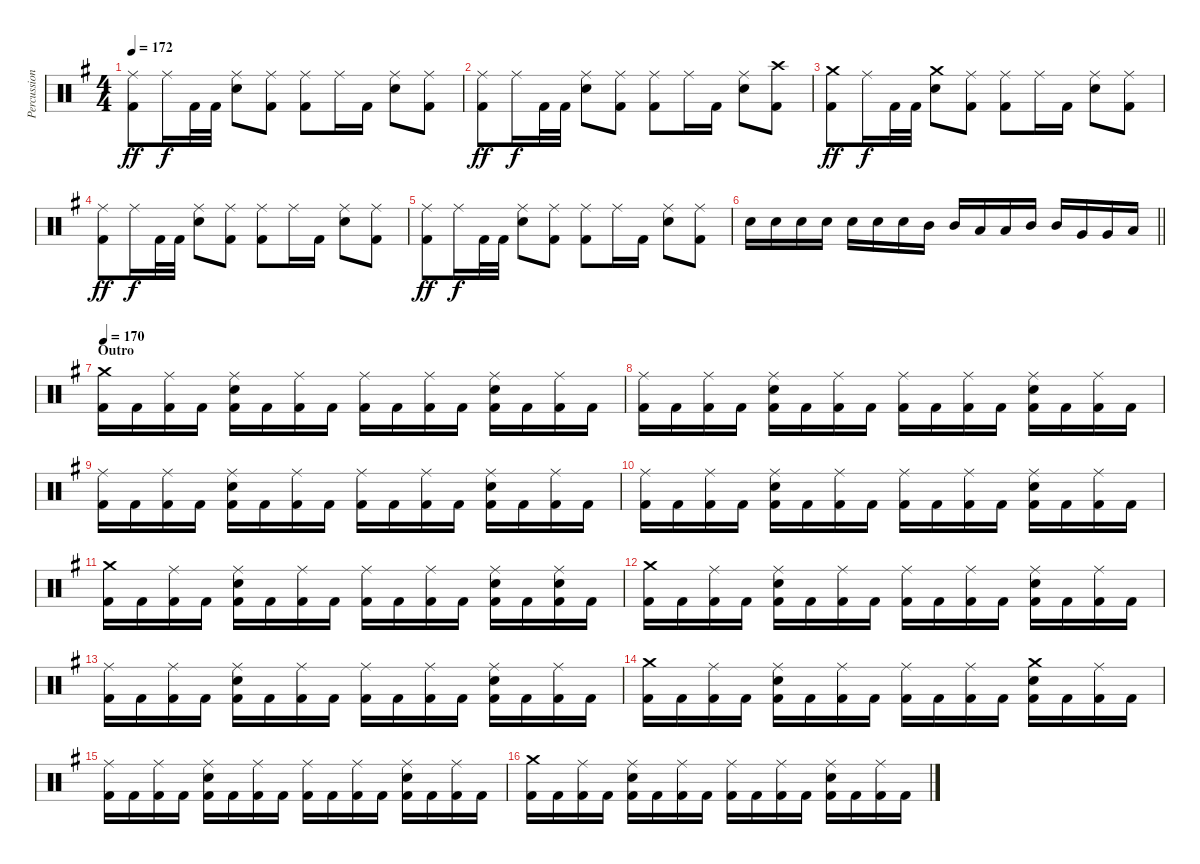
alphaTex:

\track ("Percussion" "Percussion") {instrument percussion}
\staff {score}
\articulation defaults
\ts (4 4)
\tempo 172
\clef neutral
\ks g
("Ride (middle)" "Kick (hit) 2").8{dy ff} "Ride (middle)".16{dy f} "Kick (hit) 2".32 "Kick (hit) 2".32 ("Ride (middle)" "Snare (hit) 2").8 ("Ride (middle)" "Kick (hit) 2").8 ("Ride (middle)" "Kick (hit) 2").8 "Ride (middle)".16 "Kick (hit) 2".16 ("Ride (middle)" "Snare (hit) 2").8 ("Ride (middle)" "Kick (hit) 2").8 |
("Ride (middle)" "Kick (hit) 2").8{dy ff} "Ride (middle)".16{dy f} "Kick (hit) 2".32 "Kick (hit) 2".32 ("Ride (middle)" "Snare (hit) 2").8 ("Ride (middle)" "Kick (hit) 2").8 ("Ride (middle)" "Kick (hit) 2").8 "Ride (middle)".16 "Kick (hit) 2".16 ("Ride (middle)" "Snare (hit) 2").8 ("Crash high (hit)" "Kick (hit) 2").8 |
("Crash medium (hit)" "Kick (hit) 2").8{dy ff} "Ride (middle)".16{dy f} "Kick (hit) 2".32 "Kick (hit) 2".32 ("Crash medium (hit)" "Snare (hit) 2").8 ("Ride (middle)" "Kick (hit) 2").8 ("Ride (middle)" "Kick (hit) 2").8 "Ride (middle)".16 "Kick (hit) 2".16 ("Ride (middle)" "Snare (hit) 2").8 ("Ride (middle)" "Kick (hit) 2").8 |
("Ride (middle)" "Kick (hit) 2").8{dy ff} "Ride (middle)".16{dy f} "Kick (hit) 2".32 "Kick (hit) 2".32 ("Ride (middle)" "Snare (hit) 2").8 ("Ride (middle)" "Kick (hit) 2").8 ("Ride (middle)" "Kick (hit) 2").8 "Ride (middle)".16 "Kick (hit) 2".16 ("Ride (middle)" "Snare (hit) 2").8 ("Ride (middle)" "Kick (hit) 2").8 |
("Ride (middle)" "Kick (hit) 2").8{dy ff} "Ride (middle)".16{dy f} "Kick (hit) 2".32 "Kick (hit) 2".32 ("Ride (middle)" "Snare (hit) 2").8 ("Ride (middle)" "Kick (hit) 2").8 ("Ride (middle)" "Kick (hit) 2").8 "Ride (middle)".16 "Kick (hit) 2".16 ("Ride (middle)" "Snare (hit) 2").8 ("Ride (middle)" "Kick (hit) 2").8 |
\barLineRight lightlight "Snare (hit) 2".16 "Snare (hit) 2".16 "Snare (hit) 2".16 "Snare (hit) 2".16 "Snare (hit) 2".16 "Snare (hit) 2".16 "Snare (hit) 2".16 "Mid Tom (hit)".16 "Mid Tom (hit)".16 "Low Tom (hit)".16 "Low Tom (hit)".16 "Mid Tom (hit)".16 "Mid Tom (hit)".16 "Very Low Tom (hit)".16 "Very Low Tom (hit)".16 "Low Floor Tom (hit)".16
|
\section ("" "Outro")
\tempo 170
("Crash medium (hit)" "Kick (hit) 2").16 "Kick (hit) 2".16 ("Ride (middle)" "Kick (hit) 2").16 "Kick (hit) 2".16 ("Ride (middle)" "Snare (hit) 2" "Kick (hit) 2").16 "Kick (hit) 2".16 ("Ride (middle)" "Kick (hit) 2").16 "Kick (hit) 2".16 ("Ride (middle)" "Kick (hit) 2").16 "Kick (hit) 2".16 ("Ride (middle)" "Kick (hit) 2").16 "Kick (hit) 2".16 ("Ride (middle)" "Snare (hit) 2" "Kick (hit) 2").16 "Kick (hit) 2".16 ("Ride (middle)" "Kick (hit) 2").16 "Kick (hit) 2".16 |
("Ride (middle)" "Kick (hit) 2").16 "Kick (hit) 2".16 ("Ride (middle)" "Kick (hit) 2").16 "Kick (hit) 2".16 ("Ride (middle)" "Snare (hit) 2" "Kick (hit) 2").16 "Kick (hit) 2".16 ("Ride (middle)" "Kick (hit) 2").16 "Kick (hit) 2".16 ("Ride (middle)" "Kick (hit) 2").16 "Kick (hit) 2".16 ("Ride (middle)" "Kick (hit) 2").16 "Kick (hit) 2".16 ("Ride (middle)" "Snare (hit) 2" "Kick (hit) 2").16 "Kick (hit) 2".16 ("Ride (middle)" "Kick (hit) 2").16 "Kick (hit) 2".16 |
("Ride (middle)" "Kick (hit) 2").16 "Kick (hit) 2".16 ("Ride (middle)" "Kick (hit) 2").16 "Kick (hit) 2".16 ("Ride (middle)" "Snare (hit) 2" "Kick (hit) 2").16 "Kick (hit) 2".16 ("Ride (middle)" "Kick (hit) 2").16 "Kick (hit) 2".16 ("Ride (middle)" "Kick (hit) 2").16 "Kick (hit) 2".16 ("Ride (middle)" "Kick (hit) 2").16 "Kick (hit) 2".16 ("Ride (middle)" "Snare (hit) 2" "Kick (hit) 2").16 "Kick (hit) 2".16 ("Ride (middle)" "Kick (hit) 2").16 "Kick (hit) 2".16 |
("Ride (middle)" "Kick (hit) 2").16 "Kick (hit) 2".16 ("Ride (middle)" "Kick (hit) 2").16 "Kick (hit) 2".16 ("Ride (middle)" "Snare (hit) 2" "Kick (hit) 2").16 "Kick (hit) 2".16 ("Ride (middle)" "Kick (hit) 2").16 "Kick (hit) 2".16 ("Ride (middle)" "Kick (hit) 2").16 "Kick (hit) 2".16 ("Ride (middle)" "Kick (hit) 2").16 "Kick (hit) 2".16 ("Ride (middle)" "Snare (hit) 2" "Kick (hit) 2").16 "Kick (hit) 2".16 ("Ride (middle)" "Kick (hit) 2").16 "Kick (hit) 2".16 |
("Crash medium (hit)" "Kick (hit) 2").16 "Kick (hit) 2".16 ("Ride (middle)" "Kick (hit) 2").16 "Kick (hit) 2".16 ("Ride (middle)" "Snare (hit) 2" "Kick (hit) 2").16 "Kick (hit) 2".16 ("Ride (middle)" "Kick (hit) 2").16 "Kick (hit) 2".16 ("Ride (middle)" "Kick (hit) 2").16 "Kick (hit) 2".16 ("Ride (middle)" "Kick (hit) 2").16 "Kick (hit) 2".16 ("Ride (middle)" "Snare (hit) 2" "Kick (hit) 2").16 "Kick (hit) 2".16 ("Ride (middle)" "Snare (hit) 2" "Kick (hit) 2").16 "Kick (hit) 2".16 |
("Crash medium (hit)" "Kick (hit) 2").16 "Kick (hit) 2".16 ("Ride (middle)" "Kick (hit) 2").16 "Kick (hit) 2".16 ("Ride (middle)" "Snare (hit) 2" "Kick (hit) 2").16 "Kick (hit) 2".16 ("Ride (middle)" "Kick (hit) 2").16 "Kick (hit) 2".16 ("Ride (middle)" "Kick (hit) 2").16 "Kick (hit) 2".16 ("Ride (middle)" "Kick (hit) 2").16 "Kick (hit) 2".16 ("Ride (middle)" "Snare (hit) 2" "Kick (hit) 2").16 "Kick (hit) 2".16 ("Ride (middle)" "Kick (hit) 2").16 "Kick (hit) 2".16 |
("Ride (middle)" "Kick (hit) 2").16 "Kick (hit) 2".16 ("Ride (middle)" "Kick (hit) 2").16 "Kick (hit) 2".16 ("Ride (middle)" "Snare (hit) 2" "Kick (hit) 2").16 "Kick (hit) 2".16 ("Ride (middle)" "Kick (hit) 2").16 "Kick (hit) 2".16 ("Ride (middle)" "Kick (hit) 2").16 "Kick (hit) 2".16 ("Ride (middle)" "Kick (hit) 2").16 "Kick (hit) 2".16 ("Ride (middle)" "Snare (hit) 2" "Kick (hit) 2").16 "Kick (hit) 2".16 ("Ride (middle)" "Kick (hit) 2").16 "Kick (hit) 2".16 |
("Crash medium (hit)" "Kick (hit) 2").16 "Kick (hit) 2".16 ("Ride (middle)" "Kick (hit) 2").16 "Kick (hit) 2".16 ("Ride (middle)" "Snare (hit) 2" "Kick (hit) 2").16 "Kick (hit) 2".16 ("Ride (middle)" "Kick (hit) 2").16 "Kick (hit) 2".16 ("Ride (middle)" "Kick (hit) 2").16 "Kick (hit) 2".16 ("Ride (middle)" "Kick (hit) 2").16 "Kick (hit) 2".16 ("Crash medium (hit)" "Snare (hit) 2" "Kick (hit) 2").16 "Kick (hit) 2".16 ("Ride (middle)" "Kick (hit) 2").16 "Kick (hit) 2".16 |
("Ride (middle)" "Kick (hit) 2").16 "Kick (hit) 2".16 ("Ride (middle)" "Kick (hit) 2").16 "Kick (hit) 2".16 ("Ride (middle)" "Snare (hit) 2" "Kick (hit) 2").16 "Kick (hit) 2".16 ("Ride (middle)" "Kick (hit) 2").16 "Kick (hit) 2".16 ("Ride (middle)" "Kick (hit) 2").16 "Kick (hit) 2".16 ("Ride (middle)" "Kick (hit) 2").16 "Kick (hit) 2".16 ("Ride (middle)" "Snare (hit) 2" "Kick (hit) 2").16 "Kick (hit) 2".16 ("Ride (middle)" "Kick (hit) 2").16 "Kick (hit) 2".16 |
("Crash medium (hit)" "Kick (hit) 2").16 "Kick (hit) 2".16 ("Ride (middle)" "Kick (hit) 2").16 "Kick (hit) 2".16 ("Ride (middle)" "Snare (hit) 2" "Kick (hit) 2").16 "Kick (hit) 2".16 ("Ride (middle)" "Kick (hit) 2").16 "Kick (hit) 2".16 ("Ride (middle)" "Kick (hit) 2").16 "Kick (hit) 2".16 ("Ride (middle)" "Kick (hit) 2").16 "Kick (hit) 2".16 ("Ride (middle)" "Snare (hit) 2" "Kick (hit) 2").16 "Kick (hit) 2".16 ("Ride (middle)" "Kick (hit) 2").16 "Kick (hit) 2".16
